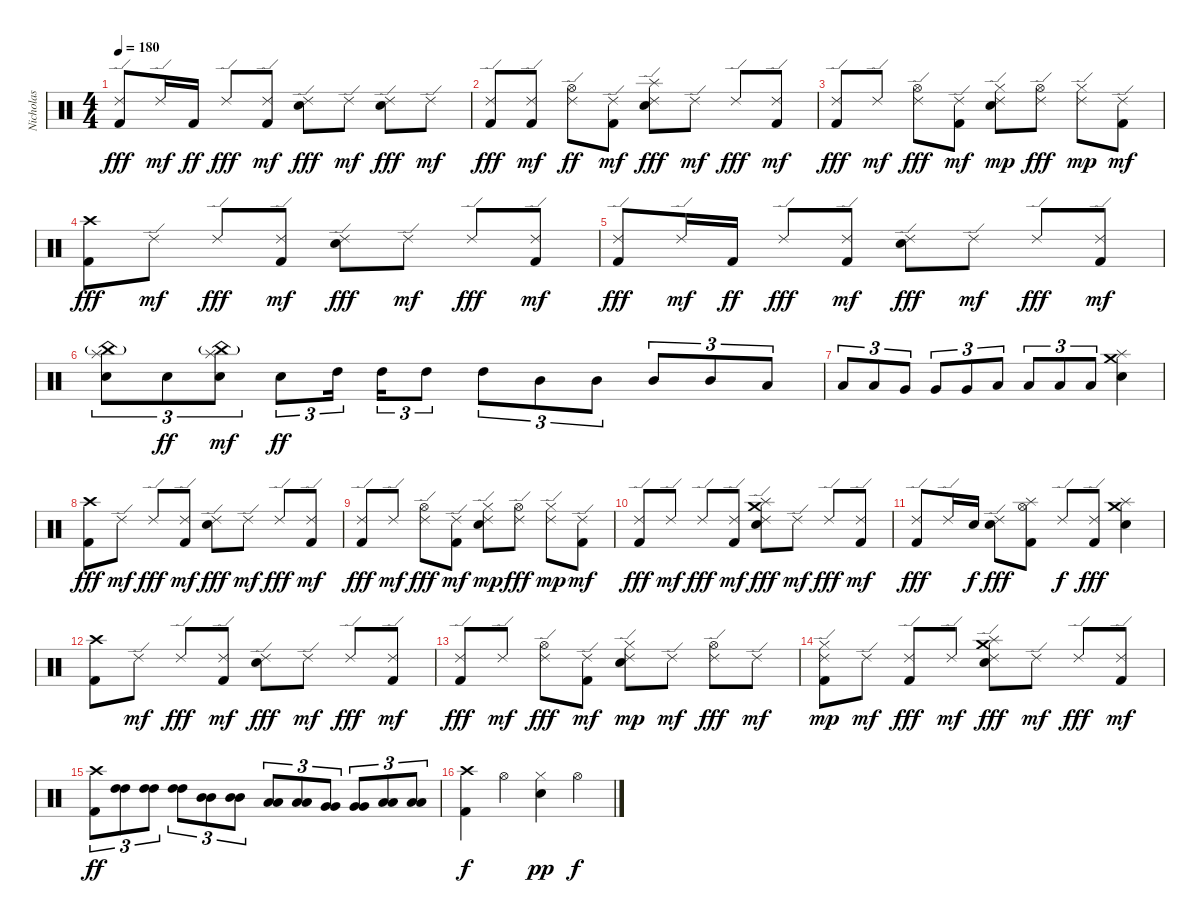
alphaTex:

\track ("Nicholas" "Nicholas") {instrument percussion}
\staff {score}
\articulation defaults
\ts (4 4)
\tempo 180
\clef neutral
\ks c
("Kick (hit) 2" "Ride (edge) 2").8{dy fff} "Ride (edge) 2".16{dy mf} "Kick (hit) 2".16{dy ff} "Ride (edge) 2".8{dy fff} ("Kick (hit) 2" "Ride (edge) 2").8{dy mf} ("Electric Snare (hit)" "Ride (edge) 2").8{dy fff} "Ride (edge) 2".8{dy mf} ("Electric Snare (hit)" "Ride (edge) 2").8{dy fff} "Ride (edge) 2".8{dy mf} |
("Kick (hit) 2" "Ride (edge) 2").8{dy fff} ("Kick (hit) 2" "Ride (edge) 2").8{dy mf} ("Ride (edge) 2" "Hi-Hat (open)").8{dy ff} ("Kick (hit) 2" "Ride (edge) 2").8{dy mf} ("Electric Snare (hit)" "Ride (edge) 2" "Splash (hit)").8{dy fff} "Ride (edge) 2".8{dy mf} "Ride (edge) 2".8{dy fff} ("Kick (hit) 2" "Ride (edge) 2").8{dy mf} |
("Kick (hit) 2" "Ride (edge) 2").8{dy fff} "Ride (edge) 2".8{dy mf} ("Ride (edge) 2" "Hi-Hat (open)").8{dy fff} ("Kick (hit) 2" "Ride (edge) 2").8{dy mf} ("Electric Snare (hit)" "Ride (edge) 2" "Hi-Hat (closed)").8{dy mp} ("Ride (edge) 2" "Hi-Hat (open)").8{dy fff} ("Ride (edge) 2" "Hi-Hat (closed)").8{dy mp} ("Kick (hit) 2" "Ride (edge) 2").8{dy mf} |
("Kick (hit) 2" "Crash high (hit)").8{dy fff} "Ride (edge) 2".8{dy mf} "Ride (edge) 2".8{dy fff} ("Kick (hit) 2" "Ride (edge) 2").8{dy mf} ("Electric Snare (hit)" "Ride (edge) 2").8{dy fff} "Ride (edge) 2".8{dy mf} "Ride (edge) 2".8{dy fff} ("Kick (hit) 2" "Ride (edge) 2").8{dy mf} |
("Kick (hit) 2" "Ride (edge) 2").8{dy fff} "Ride (edge) 2".16{dy mf} "Kick (hit) 2".16{dy ff} "Ride (edge) 2".8{dy fff} ("Kick (hit) 2" "Ride (edge) 2").8{dy mf} ("Electric Snare (hit)" "Ride (edge) 2").8{dy fff} "Ride (edge) 2".8{dy mf} "Ride (edge) 2".8{dy fff} ("Kick (hit) 2" "Ride (edge) 2").8{dy mf} |
("Electric Snare (hit)" "Splash (hit)" "China (hit)"{g}).8{tu (3 2)} "Electric Snare (hit)".8{tu (3 2) dy ff} ("Electric Snare (hit)" "Splash (hit)" "China (hit)"{g}).8{tu (3 2) dy mf} "Electric Snare (hit)".8{tu (3 2) dy ff} "High Tom (hit)".16{tu (3 2) beam splitsecondary} "High Tom (hit)".16{tu (3 2)} "High Tom (hit)".8{tu (3 2)} "High Tom (hit)".8{tu (3 2)} "Mid Tom (hit)".8{tu (3 2)} "Mid Tom (hit)".8{tu (3 2)} "Mid Tom (hit)".8{tu (3 2)} "Mid Tom (hit)".8{tu (3 2)} "Low Tom (hit)".8{tu (3 2)} |
"Low Tom (hit)".8{tu (3 2)} "Low Tom (hit)".8{tu (3 2)} "Very Low Tom (hit)".8{tu (3 2)} "Very Low Tom (hit)".8{tu (3 2)} "Very Low Tom (hit)".8{tu (3 2)} "Low Floor Tom (hit)".8{tu (3 2)} "Low Floor Tom (hit)".8{tu (3 2)} "Low Floor Tom (hit)".8{tu (3 2)} "Low Floor Tom (hit)".8{tu (3 2)} ("Electric Snare (hit)" "Splash (hit)" "Crash medium (hit)").4 |
("Kick (hit) 2" "Crash high (hit)").8{dy fff} "Ride (edge) 2".8{dy mf} "Ride (edge) 2".8{dy fff} ("Kick (hit) 2" "Ride (edge) 2").8{dy mf} ("Electric Snare (hit)" "Ride (edge) 2").8{dy fff} "Ride (edge) 2".8{dy mf} "Ride (edge) 2".8{dy fff} ("Kick (hit) 2" "Ride (edge) 2").8{dy mf} |
("Kick (hit) 2" "Ride (edge) 2").8{dy fff} "Ride (edge) 2".8{dy mf} ("Ride (edge) 2" "Hi-Hat (open)").8{dy fff} ("Kick (hit) 2" "Ride (edge) 2").8{dy mf} ("Electric Snare (hit)" "Ride (edge) 2" "Hi-Hat (closed)").8{dy mp} ("Ride (edge) 2" "Hi-Hat (open)").8{dy fff} ("Ride (edge) 2" "Hi-Hat (closed)").8{dy mp} ("Kick (hit) 2" "Ride (edge) 2").8{dy mf} |
("Kick (hit) 2" "Ride (edge) 2").8{dy fff} "Ride (edge) 2".8{dy mf} "Ride (edge) 2".8{dy fff} ("Kick (hit) 2" "Ride (edge) 2").8{dy mf} ("Electric Snare (hit)" "Ride (edge) 2" "Splash (hit)" "Crash medium (hit)").8{dy fff} "Ride (edge) 2".8{dy mf} "Ride (edge) 2".8{dy fff} ("Kick (hit) 2" "Ride (edge) 2").8{dy mf} |
("Kick (hit) 2" "Ride (edge) 2").8{dy fff} "Ride (edge) 2".16 "Electric Snare (hit)".16{dy f} ("Electric Snare (hit)" "Ride (edge) 2").8{dy fff} ("Kick (hit) 2" "Hi-Hat (open)" "Splash (hit)").8 "Ride (edge) 2".8{dy f} ("Kick (hit) 2" "Ride (edge) 2").8{dy fff} ("Electric Snare (hit)" "Splash (hit)" "Crash medium (hit)").4 |
("Kick (hit) 2" "Crash high (hit)").8 "Ride (edge) 2".8{dy mf} "Ride (edge) 2".8{dy fff} ("Kick (hit) 2" "Ride (edge) 2").8{dy mf} ("Electric Snare (hit)" "Ride (edge) 2").8{dy fff} "Ride (edge) 2".8{dy mf} "Ride (edge) 2".8{dy fff} ("Kick (hit) 2" "Ride (edge) 2").8{dy mf} |
("Kick (hit) 2" "Ride (edge) 2").8{dy fff} "Ride (edge) 2".8{dy mf} ("Ride (edge) 2" "Hi-Hat (open)").8{dy fff} ("Kick (hit) 2" "Ride (edge) 2").8{dy mf} ("Electric Snare (hit)" "Ride (edge) 2" "Hi-Hat (closed)").8{dy mp} "Ride (edge) 2".8{dy mf} ("Ride (edge) 2" "Hi-Hat (open)").8{dy fff} "Ride (edge) 2".8{dy mf} |
("Kick (hit) 2" "Ride (edge) 2" "Hi-Hat (closed)").8{dy mp} "Ride (edge) 2".8{dy mf} ("Kick (hit) 2" "Ride (edge) 2").8{dy fff} "Ride (edge) 2".8{dy mf} ("Electric Snare (hit)" "Ride (edge) 2" "Splash (hit)" "Crash medium (hit)").8{dy fff} "Ride (edge) 2".8{dy mf} "Ride (edge) 2".8{dy fff} ("Kick (hit) 2" "Ride (edge) 2").8{dy mf} |
("Kick (hit) 2" "Crash high (hit)").8{tu (3 2) dy ff} ("High Tom (hit)" "High Tom (hit)").8{tu (3 2)} ("High Tom (hit)" "High Tom (hit)").8{tu (3 2)} ("High Tom (hit)" "High Tom (hit)").8{tu (3 2)} ("Mid Tom (hit)" "Mid Tom (hit)").8{tu (3 2)} ("Mid Tom (hit)" "Mid Tom (hit)").8{tu (3 2)} ("Low Tom (hit)" "Low Tom (hit)").8{tu (3 2)} ("Low Tom (hit)" "Low Tom (hit)").8{tu (3 2)} ("Very Low Tom (hit)" "Very Low Tom (hit)").8{tu (3 2)} ("Very Low Tom (hit)" "Very Low Tom (hit)").8{tu (3 2)} ("Low Floor Tom (hit)" "Low Floor Tom (hit)").8{tu (3 2)} ("Low Floor Tom (hit)" "Low Floor Tom (hit)").8{tu (3 2)} |
("Kick (hit) 2" "Crash high (hit)").4{dy f} "Hi-Hat (open)".4 ("Electric Snare (hit)" "Hi-Hat (closed)").4{dy pp} "Hi-Hat (open)".4{dy f}
